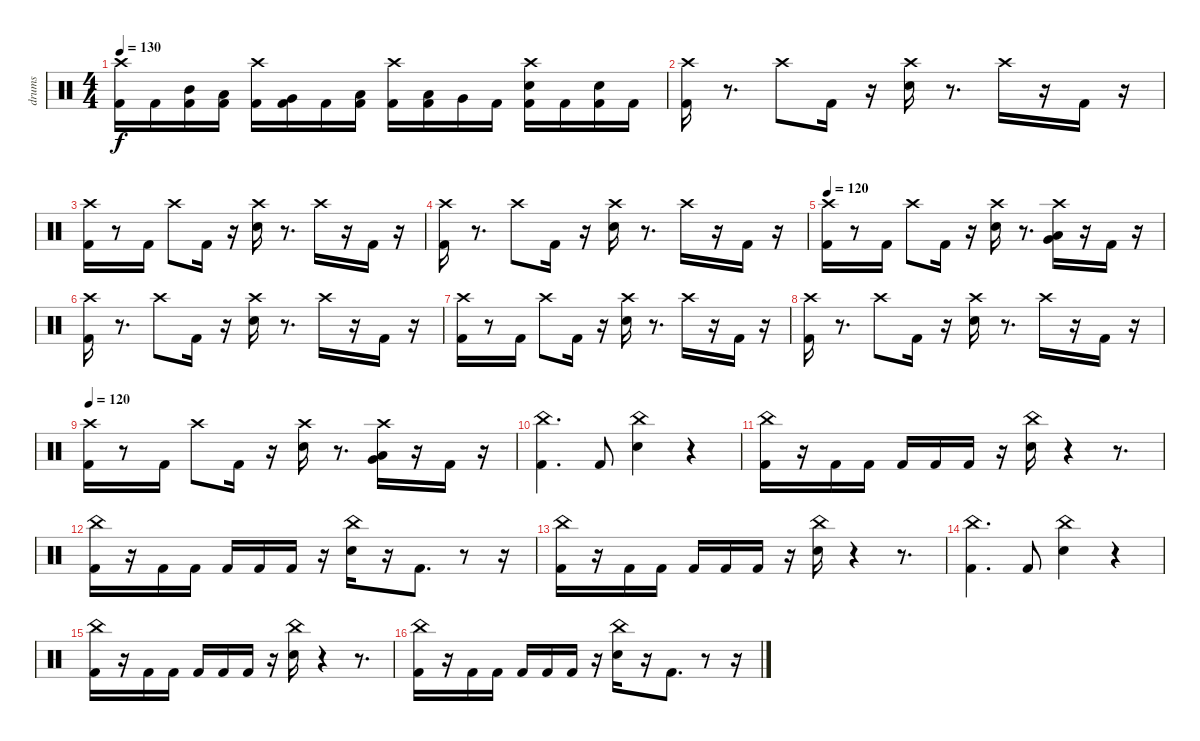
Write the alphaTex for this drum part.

\track ("drums" "drums") {instrument percussion}
\staff {score}
\articulation defaults
\ts (4 4)
\tempo 130
\clef neutral
\ks c
("Crash high (hit)" "Kick (hit) 2").16{dy f} "Kick (hit) 2".16 ("Mid Tom (hit)" "Kick (hit) 2").16 ("Low Tom (hit)" "Kick (hit) 2").16 ("Crash high (hit)" "Kick (hit) 2").16 ("Very Low Tom (hit)" "Kick (hit) 2").16 "Kick (hit) 2".16 ("Low Tom (hit)" "Kick (hit) 2").16 ("Crash high (hit)" "Kick (hit) 2").16 ("Low Tom (hit)" "Kick (hit) 2").16 "Very Low Tom (hit)".16 "Kick (hit) 2".16 ("Crash high (hit)" "Snare (hit) 2" "Kick (hit) 2").16 "Kick (hit) 2".16 ("Snare (hit) 2" "Kick (hit) 2").16 "Kick (hit) 2".16 |
("Crash high (hit)" "Kick (hit) 2").16 r.8{d} "Crash high (hit)".8 "Kick (hit) 2".16 r.16 ("Crash high (hit)" "Electric Snare (hit)").16 r.8{d} "Crash high (hit)".16 r.16 "Kick (hit) 2".16 r.16 |
("Crash high (hit)" "Kick (hit) 2").16 r.8 "Kick (hit) 2".16 "Crash high (hit)".8 "Kick (hit) 2".16 r.16 ("Crash high (hit)" "Electric Snare (hit)").16 r.8{d} "Crash high (hit)".16 r.16 "Kick (hit) 2".16 r.16 |
("Crash high (hit)" "Kick (hit) 2").16 r.8{d} "Crash high (hit)".8 "Kick (hit) 2".16 r.16 ("Crash high (hit)" "Electric Snare (hit)").16 r.8{d} "Crash high (hit)".16 r.16 "Kick (hit) 2".16 r.16 |
\tempo 120
("Crash high (hit)" "Kick (hit) 2").16 r.8 "Kick (hit) 2".16 "Crash high (hit)".8 "Kick (hit) 2".16 r.16 ("Crash high (hit)" "Electric Snare (hit)").16 r.8{d} ("Crash high (hit)" "Low Tom (hit)" "Very Low Tom (hit)").16 r.16 "Kick (hit) 2".16 r.16 |
("Crash high (hit)" "Kick (hit) 2").16 r.8{d} "Crash high (hit)".8 "Kick (hit) 2".16 r.16 ("Crash high (hit)" "Electric Snare (hit)").16 r.8{d} "Crash high (hit)".16 r.16 "Kick (hit) 2".16 r.16 |
("Crash high (hit)" "Kick (hit) 2").16 r.8 "Kick (hit) 2".16 "Crash high (hit)".8 "Kick (hit) 2".16 r.16 ("Crash high (hit)" "Electric Snare (hit)").16 r.8{d} "Crash high (hit)".16 r.16 "Kick (hit) 2".16 r.16 |
("Crash high (hit)" "Kick (hit) 2").16 r.8{d} "Crash high (hit)".8 "Kick (hit) 2".16 r.16 ("Crash high (hit)" "Electric Snare (hit)").16 r.8{d} "Crash high (hit)".16 r.16 "Kick (hit) 2".16 r.16 |
\tempo 120
("Crash high (hit)" "Kick (hit) 2").16 r.8 "Kick (hit) 2".16 "Crash high (hit)".8 "Kick (hit) 2".16 r.16 ("Crash high (hit)" "Electric Snare (hit)").16 r.8{d} ("Crash high (hit)" "Low Tom (hit)" "Very Low Tom (hit)").16 r.16 "Kick (hit) 2".16 r.16 |
("China (hit)" "Kick (hit) 2").4{d} "Kick (hit) 2".8 ("China (hit)" "Electric Snare (hit)").4 r.4 |
("China (hit)" "Kick (hit) 2").16 r.16 "Kick (hit) 2".16 "Kick (hit) 2".16 "Kick (hit) 2".16 "Kick (hit) 2".16 "Kick (hit) 2".16 r.16 ("China (hit)" "Electric Snare (hit)").16 r.4 r.8{d} |
("China (hit)" "Kick (hit) 2").16 r.16 "Kick (hit) 2".16 "Kick (hit) 2".16 "Kick (hit) 2".16 "Kick (hit) 2".16 "Kick (hit) 2".16 r.16 ("China (hit)" "Electric Snare (hit)").16 r.16 "Kick (hit) 2".8{d} r.8 r.16 |
("China (hit)" "Kick (hit) 2").16 r.16 "Kick (hit) 2".16 "Kick (hit) 2".16 "Kick (hit) 2".16 "Kick (hit) 2".16 "Kick (hit) 2".16 r.16 ("China (hit)" "Electric Snare (hit)").16 r.4 r.8{d} |
("China (hit)" "Kick (hit) 2").4{d} "Kick (hit) 2".8 ("China (hit)" "Electric Snare (hit)").4 r.4 |
("China (hit)" "Kick (hit) 2").16 r.16 "Kick (hit) 2".16 "Kick (hit) 2".16 "Kick (hit) 2".16 "Kick (hit) 2".16 "Kick (hit) 2".16 r.16 ("China (hit)" "Electric Snare (hit)").16 r.4 r.8{d} |
("China (hit)" "Kick (hit) 2").16 r.16 "Kick (hit) 2".16 "Kick (hit) 2".16 "Kick (hit) 2".16 "Kick (hit) 2".16 "Kick (hit) 2".16 r.16 ("China (hit)" "Electric Snare (hit)").16 r.16 "Kick (hit) 2".8{d} r.8 r.16
